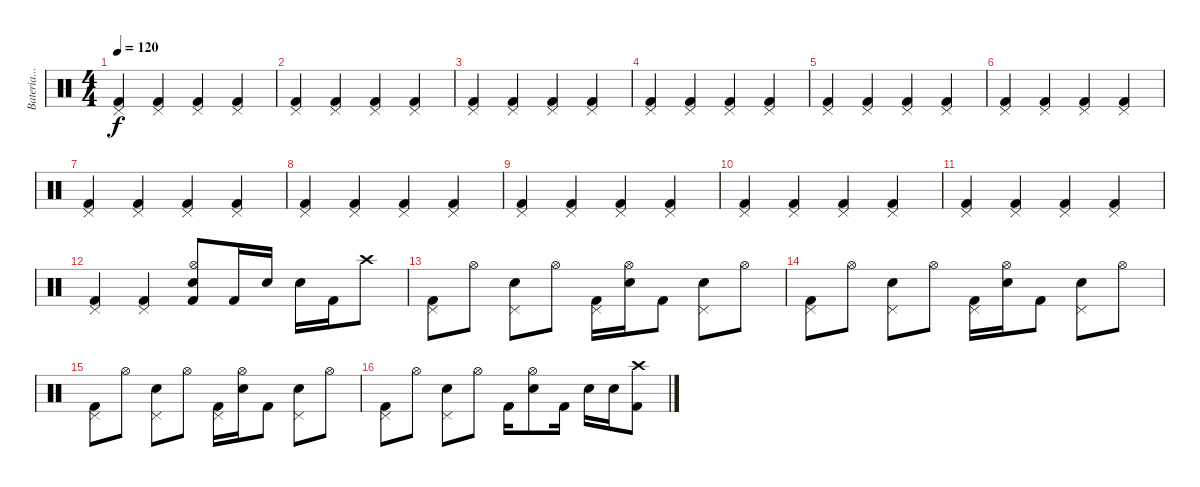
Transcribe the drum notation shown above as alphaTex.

\track ("Bateria...xD" "Bateria...") {instrument percussion}
\staff {score}
\articulation defaults
\ts (4 4)
\tempo 120
\clef neutral
\ks c
("Pedal Hi-Hat (hit)" "Kick (hit) 2").4{dy f} ("Pedal Hi-Hat (hit)" "Kick (hit) 2").4 ("Pedal Hi-Hat (hit)" "Kick (hit) 2").4 ("Pedal Hi-Hat (hit)" "Kick (hit) 2").4 |
("Pedal Hi-Hat (hit)" "Kick (hit) 2").4 ("Pedal Hi-Hat (hit)" "Kick (hit) 2").4 ("Pedal Hi-Hat (hit)" "Kick (hit) 2").4 ("Pedal Hi-Hat (hit)" "Kick (hit) 2").4 |
("Pedal Hi-Hat (hit)" "Kick (hit) 2").4 ("Pedal Hi-Hat (hit)" "Kick (hit) 2").4 ("Pedal Hi-Hat (hit)" "Kick (hit) 2").4 ("Pedal Hi-Hat (hit)" "Kick (hit) 2").4 |
("Pedal Hi-Hat (hit)" "Kick (hit) 2").4 ("Pedal Hi-Hat (hit)" "Kick (hit) 2").4 ("Pedal Hi-Hat (hit)" "Kick (hit) 2").4 ("Pedal Hi-Hat (hit)" "Kick (hit) 2").4 |
("Pedal Hi-Hat (hit)" "Kick (hit) 2").4 ("Pedal Hi-Hat (hit)" "Kick (hit) 2").4 ("Pedal Hi-Hat (hit)" "Kick (hit) 2").4 ("Pedal Hi-Hat (hit)" "Kick (hit) 2").4 |
("Pedal Hi-Hat (hit)" "Kick (hit) 2").4 ("Pedal Hi-Hat (hit)" "Kick (hit) 2").4 ("Pedal Hi-Hat (hit)" "Kick (hit) 2").4 ("Pedal Hi-Hat (hit)" "Kick (hit) 2").4 |
("Pedal Hi-Hat (hit)" "Kick (hit) 2").4 ("Pedal Hi-Hat (hit)" "Kick (hit) 2").4 ("Pedal Hi-Hat (hit)" "Kick (hit) 2").4 ("Pedal Hi-Hat (hit)" "Kick (hit) 2").4 |
("Pedal Hi-Hat (hit)" "Kick (hit) 2").4 ("Pedal Hi-Hat (hit)" "Kick (hit) 2").4 ("Pedal Hi-Hat (hit)" "Kick (hit) 2").4 ("Pedal Hi-Hat (hit)" "Kick (hit) 2").4 |
("Pedal Hi-Hat (hit)" "Kick (hit) 2").4 ("Pedal Hi-Hat (hit)" "Kick (hit) 2").4 ("Pedal Hi-Hat (hit)" "Kick (hit) 2").4 ("Pedal Hi-Hat (hit)" "Kick (hit) 2").4 |
("Pedal Hi-Hat (hit)" "Kick (hit) 2").4 ("Pedal Hi-Hat (hit)" "Kick (hit) 2").4 ("Pedal Hi-Hat (hit)" "Kick (hit) 2").4 ("Pedal Hi-Hat (hit)" "Kick (hit) 2").4 |
("Pedal Hi-Hat (hit)" "Kick (hit) 2").4 ("Pedal Hi-Hat (hit)" "Kick (hit) 2").4 ("Pedal Hi-Hat (hit)" "Kick (hit) 2").4 ("Pedal Hi-Hat (hit)" "Kick (hit) 2").4 |
("Pedal Hi-Hat (hit)" "Kick (hit) 2").4 ("Pedal Hi-Hat (hit)" "Kick (hit) 2").4 ("Hi-Hat (open)" "Electric Snare (hit)" "Kick (hit) 2").8 "Kick (hit) 2".16 "Electric Snare (hit)".16 "Electric Snare (hit)".16 "Kick (hit) 2".16 "Crash high (hit)".8 |
("Pedal Hi-Hat (hit)" "Kick (hit) 2").8 "Hi-Hat (open)".8 ("Pedal Hi-Hat (hit)" "Electric Snare (hit)").8 "Hi-Hat (open)".8 ("Pedal Hi-Hat (hit)" "Kick (hit) 2").16 ("Hi-Hat (open)" "Electric Snare (hit)").16 "Kick (hit) 2".8 ("Pedal Hi-Hat (hit)" "Electric Snare (hit)").8 "Hi-Hat (open)".8 |
("Pedal Hi-Hat (hit)" "Kick (hit) 2").8 "Hi-Hat (open)".8 ("Pedal Hi-Hat (hit)" "Electric Snare (hit)").8 "Hi-Hat (open)".8 ("Pedal Hi-Hat (hit)" "Kick (hit) 2").16 ("Hi-Hat (open)" "Electric Snare (hit)").16 "Kick (hit) 2".8 ("Pedal Hi-Hat (hit)" "Electric Snare (hit)").8 "Hi-Hat (open)".8 |
("Pedal Hi-Hat (hit)" "Kick (hit) 2").8 "Hi-Hat (open)".8 ("Pedal Hi-Hat (hit)" "Electric Snare (hit)").8 "Hi-Hat (open)".8 ("Pedal Hi-Hat (hit)" "Kick (hit) 2").16 ("Hi-Hat (open)" "Electric Snare (hit)").16 "Kick (hit) 2".8 ("Pedal Hi-Hat (hit)" "Electric Snare (hit)").8 "Hi-Hat (open)".8 |
("Pedal Hi-Hat (hit)" "Kick (hit) 2").8 "Hi-Hat (open)".8 ("Pedal Hi-Hat (hit)" "Electric Snare (hit)").8 "Hi-Hat (open)".8 "Kick (hit) 2".16 ("Hi-Hat (open)" "Electric Snare (hit)").8 "Kick (hit) 2".16 "Electric Snare (hit)".16 "Electric Snare (hit)".16 ("Crash high (hit)" "Kick (hit) 2").8
